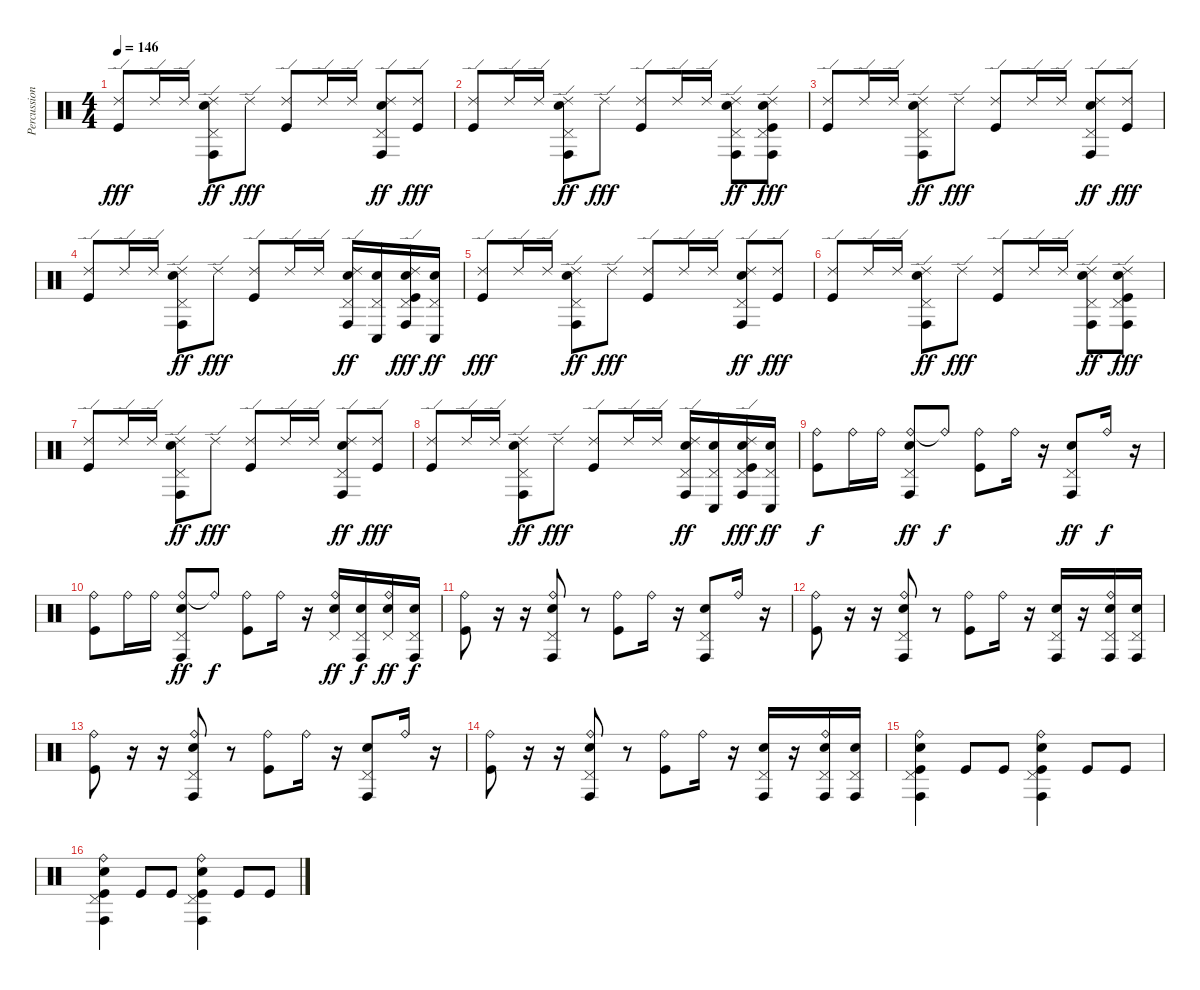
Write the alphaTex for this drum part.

\track ("Percussion" "Percussion") {instrument percussion}
\staff {score}
\articulation defaults
\ts (4 4)
\tempo 146
\clef neutral
\ks c
("Ride (edge) 2" "Kick (hit)").8{dy fff} "Ride (edge) 2".16 "Ride (edge) 2".16 ("Ride (edge) 2" "Pedal Hi-Hat (hit)" "Conga high (hit)" "Electric Snare (hit)").8{dy ff} "Ride (edge) 2".8{dy fff} ("Ride (edge) 2" "Kick (hit)").8 "Ride (edge) 2".16 "Ride (edge) 2".16 ("Ride (edge) 2" "Pedal Hi-Hat (hit)" "Conga high (hit)" "Electric Snare (hit)").8{dy ff} ("Ride (edge) 2" "Kick (hit)").8{dy fff} |
("Ride (edge) 2" "Kick (hit)").8 "Ride (edge) 2".16 "Ride (edge) 2".16 ("Ride (edge) 2" "Pedal Hi-Hat (hit)" "Conga high (hit)" "Electric Snare (hit)").8{dy ff} "Ride (edge) 2".8{dy fff} ("Ride (edge) 2" "Kick (hit)").8 "Ride (edge) 2".16 "Ride (edge) 2".16 ("Ride (edge) 2" "Pedal Hi-Hat (hit)" "Conga high (hit)" "Electric Snare (hit)").8{dy ff} ("Ride (edge) 2" "Pedal Hi-Hat (hit)" "Conga high (hit)" "Electric Snare (hit)" "Kick (hit)").8{dy fff} |
("Ride (edge) 2" "Kick (hit)").8 "Ride (edge) 2".16 "Ride (edge) 2".16 ("Ride (edge) 2" "Pedal Hi-Hat (hit)" "Conga high (hit)" "Electric Snare (hit)").8{dy ff} "Ride (edge) 2".8{dy fff} ("Ride (edge) 2" "Kick (hit)").8 "Ride (edge) 2".16 "Ride (edge) 2".16 ("Ride (edge) 2" "Pedal Hi-Hat (hit)" "Conga high (hit)" "Electric Snare (hit)").8{dy ff} ("Ride (edge) 2" "Kick (hit)").8{dy fff} |
("Ride (edge) 2" "Kick (hit)").8 "Ride (edge) 2".16 "Ride (edge) 2".16 ("Ride (edge) 2" "Pedal Hi-Hat (hit)" "Conga high (hit)" "Electric Snare (hit)").8{dy ff} "Ride (edge) 2".8{dy fff} ("Ride (edge) 2" "Kick (hit)").8 "Ride (edge) 2".16 "Ride (edge) 2".16 ("Ride (edge) 2" "Pedal Hi-Hat (hit)" "Conga high (hit)" "Electric Snare (hit)").16{dy ff} ("Pedal Hi-Hat (hit)" "Conga low (hit)" "Electric Snare (hit)").16 ("Ride (edge) 2" "Pedal Hi-Hat (hit)" "Conga high (hit)" "Electric Snare (hit)" "Kick (hit)").16{dy fff} ("Pedal Hi-Hat (hit)" "Conga low (hit)" "Electric Snare (hit)").16{dy ff} |
("Ride (edge) 2" "Kick (hit)").8{dy fff} "Ride (edge) 2".16 "Ride (edge) 2".16 ("Ride (edge) 2" "Pedal Hi-Hat (hit)" "Conga high (hit)" "Electric Snare (hit)").8{dy ff} "Ride (edge) 2".8{dy fff} ("Ride (edge) 2" "Kick (hit)").8 "Ride (edge) 2".16 "Ride (edge) 2".16 ("Ride (edge) 2" "Pedal Hi-Hat (hit)" "Conga high (hit)" "Electric Snare (hit)").8{dy ff} ("Ride (edge) 2" "Kick (hit)").8{dy fff} |
("Ride (edge) 2" "Kick (hit)").8 "Ride (edge) 2".16 "Ride (edge) 2".16 ("Ride (edge) 2" "Pedal Hi-Hat (hit)" "Conga high (hit)" "Electric Snare (hit)").8{dy ff} "Ride (edge) 2".8{dy fff} ("Ride (edge) 2" "Kick (hit)").8 "Ride (edge) 2".16 "Ride (edge) 2".16 ("Ride (edge) 2" "Pedal Hi-Hat (hit)" "Conga high (hit)" "Electric Snare (hit)").8{dy ff} ("Ride (edge) 2" "Pedal Hi-Hat (hit)" "Conga high (hit)" "Electric Snare (hit)" "Kick (hit)").8{dy fff} |
("Ride (edge) 2" "Kick (hit)").8 "Ride (edge) 2".16 "Ride (edge) 2".16 ("Ride (edge) 2" "Pedal Hi-Hat (hit)" "Conga high (hit)" "Electric Snare (hit)").8{dy ff} "Ride (edge) 2".8{dy fff} ("Ride (edge) 2" "Kick (hit)").8 "Ride (edge) 2".16 "Ride (edge) 2".16 ("Ride (edge) 2" "Pedal Hi-Hat (hit)" "Conga high (hit)" "Electric Snare (hit)").8{dy ff} ("Ride (edge) 2" "Kick (hit)").8{dy fff} |
("Ride (edge) 2" "Kick (hit)").8 "Ride (edge) 2".16 "Ride (edge) 2".16 ("Ride (edge) 2" "Pedal Hi-Hat (hit)" "Conga high (hit)" "Electric Snare (hit)").8{dy ff} "Ride (edge) 2".8{dy fff} ("Ride (edge) 2" "Kick (hit)").8 "Ride (edge) 2".16 "Ride (edge) 2".16 ("Ride (edge) 2" "Pedal Hi-Hat (hit)" "Conga high (hit)" "Electric Snare (hit)").16{dy ff} ("Pedal Hi-Hat (hit)" "Conga low (hit)" "Electric Snare (hit)").16 ("Ride (edge) 2" "Pedal Hi-Hat (hit)" "Conga high (hit)" "Electric Snare (hit)" "Kick (hit)").16{dy fff} ("Pedal Hi-Hat (hit)" "Conga low (hit)" "Electric Snare (hit)").16{dy ff} |
("Ride (bell)" "Kick (hit)").8{dy f} "Ride (bell)".16 "Ride (bell)".16 ("Ride (bell)" "Pedal Hi-Hat (hit)" "Conga high (hit)" "Electric Snare (hit)").8{dy ff} "Ride (bell)"{t}.8{dy f} ("Ride (bell)" "Kick (hit)").8 "Ride (bell)".16 r.16 ("Pedal Hi-Hat (hit)" "Conga high (hit)" "Electric Snare (hit)").8{dy ff} "Ride (bell)".16{dy f} r.16 |
("Ride (bell)" "Kick (hit)").8 "Ride (bell)".16 "Ride (bell)".16 ("Ride (bell)" "Pedal Hi-Hat (hit)" "Conga high (hit)" "Electric Snare (hit)").8{dy ff} "Ride (bell)"{t}.8{dy f} ("Ride (bell)" "Kick (hit)").8 "Ride (bell)".16 r.16 ("Ride (bell)" "Pedal Hi-Hat (hit)" "Electric Snare (hit)").16{dy ff} ("Pedal Hi-Hat (hit)" "Conga high (hit)" "Electric Snare (hit)").16{dy f} ("Ride (bell)" "Pedal Hi-Hat (hit)" "Electric Snare (hit)").16{dy ff} ("Pedal Hi-Hat (hit)" "Conga high (hit)" "Electric Snare (hit)").16{dy f} |
("Ride (bell)" "Kick (hit)").8 r.16 r.16 ("Ride (bell)" "Pedal Hi-Hat (hit)" "Conga high (hit)" "Electric Snare (hit)").8 r.8 ("Ride (bell)" "Kick (hit)").8 "Ride (bell)".16 r.16 ("Pedal Hi-Hat (hit)" "Conga high (hit)" "Electric Snare (hit)").8 "Ride (bell)".16 r.16 |
("Ride (bell)" "Kick (hit)").8 r.16 r.16 ("Ride (bell)" "Pedal Hi-Hat (hit)" "Conga high (hit)" "Electric Snare (hit)").8 r.8 ("Ride (bell)" "Kick (hit)").8 "Ride (bell)".16 r.16 ("Pedal Hi-Hat (hit)" "Conga high (hit)" "Electric Snare (hit)").16 r.16 ("Ride (bell)" "Pedal Hi-Hat (hit)" "Conga high (hit)" "Electric Snare (hit)").16 ("Pedal Hi-Hat (hit)" "Conga high (hit)" "Electric Snare (hit)").16 |
("Ride (bell)" "Kick (hit)").8 r.16 r.16 ("Ride (bell)" "Pedal Hi-Hat (hit)" "Conga high (hit)" "Electric Snare (hit)").8 r.8 ("Ride (bell)" "Kick (hit)").8 "Ride (bell)".16 r.16 ("Pedal Hi-Hat (hit)" "Conga high (hit)" "Electric Snare (hit)").8 "Ride (bell)".16 r.16 |
("Ride (bell)" "Kick (hit)").8 r.16 r.16 ("Ride (bell)" "Pedal Hi-Hat (hit)" "Conga high (hit)" "Electric Snare (hit)").8 r.8 ("Ride (bell)" "Kick (hit)").8 "Ride (bell)".16 r.16 ("Pedal Hi-Hat (hit)" "Conga high (hit)" "Electric Snare (hit)").16 r.16 ("Ride (bell)" "Pedal Hi-Hat (hit)" "Conga high (hit)" "Electric Snare (hit)").16 ("Pedal Hi-Hat (hit)" "Conga high (hit)" "Electric Snare (hit)").16 |
("Ride (bell)" "Pedal Hi-Hat (hit)" "Conga high (hit)" "Electric Snare (hit)" "Kick (hit)").4 "Kick (hit)".8 "Kick (hit)".8 ("Ride (bell)" "Pedal Hi-Hat (hit)" "Conga high (hit)" "Electric Snare (hit)" "Kick (hit)").4 "Kick (hit)".8 "Kick (hit)".8 |
("Ride (bell)" "Pedal Hi-Hat (hit)" "Conga high (hit)" "Electric Snare (hit)" "Kick (hit)").4 "Kick (hit)".8 "Kick (hit)".8 ("Ride (bell)" "Pedal Hi-Hat (hit)" "Conga high (hit)" "Electric Snare (hit)" "Kick (hit)").4 "Kick (hit)".8 "Kick (hit)".8
